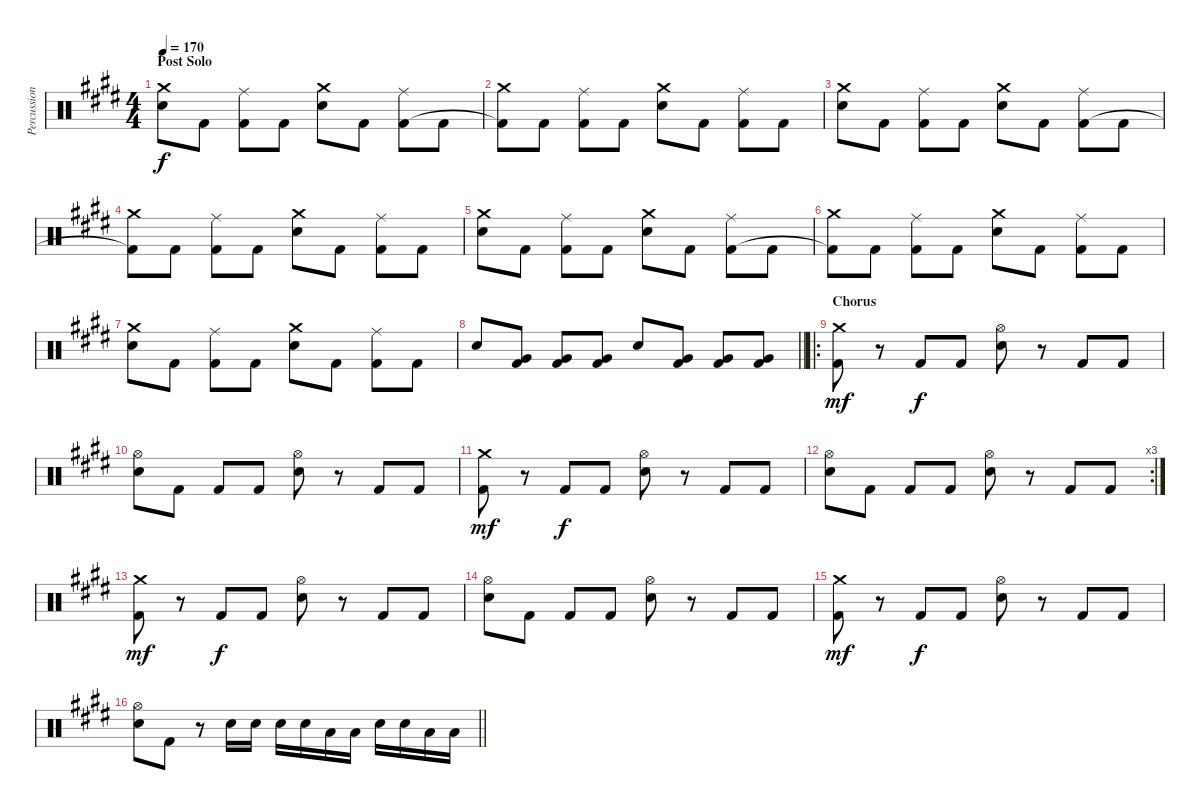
\track ("Percussion" "Percussion") {instrument percussion}
\staff {score}
\articulation defaults
\ts (4 4)
\section ("" "Post Solo")
\tempo 170
\clef neutral
\ks c#minor
("Crash medium (hit)" "Snare (hit) 2").8{dy f} "Kick (hit) 2".8 ("Ride (middle)" "Kick (hit) 2").8 "Kick (hit) 2".8 ("Crash medium (hit)" "Snare (hit) 2").8 "Kick (hit) 2".8 ("Ride (middle)" "Kick (hit) 2").8 "Kick (hit) 2".8 |
("Crash medium (hit)" "Kick (hit) 2"{t}).8 "Kick (hit) 2".8 ("Ride (middle)" "Kick (hit) 2").8 "Kick (hit) 2".8 ("Crash medium (hit)" "Snare (hit) 2").8 "Kick (hit) 2".8 ("Ride (middle)" "Kick (hit) 2").8 "Kick (hit) 2".8 |
("Crash medium (hit)" "Snare (hit) 2").8 "Kick (hit) 2".8 ("Ride (middle)" "Kick (hit) 2").8 "Kick (hit) 2".8 ("Crash medium (hit)" "Snare (hit) 2").8 "Kick (hit) 2".8 ("Ride (middle)" "Kick (hit) 2").8 "Kick (hit) 2".8 |
("Crash medium (hit)" "Kick (hit) 2"{t}).8 "Kick (hit) 2".8 ("Ride (middle)" "Kick (hit) 2").8 "Kick (hit) 2".8 ("Crash medium (hit)" "Snare (hit) 2").8 "Kick (hit) 2".8 ("Ride (middle)" "Kick (hit) 2").8 "Kick (hit) 2".8 |
("Crash medium (hit)" "Snare (hit) 2").8 "Kick (hit) 2".8 ("Ride (middle)" "Kick (hit) 2").8 "Kick (hit) 2".8 ("Crash medium (hit)" "Snare (hit) 2").8 "Kick (hit) 2".8 ("Ride (middle)" "Kick (hit) 2").8 "Kick (hit) 2".8 |
("Crash medium (hit)" "Kick (hit) 2"{t}).8 "Kick (hit) 2".8 ("Ride (middle)" "Kick (hit) 2").8 "Kick (hit) 2".8 ("Crash medium (hit)" "Snare (hit) 2").8 "Kick (hit) 2".8 ("Ride (middle)" "Kick (hit) 2").8 "Kick (hit) 2".8 |
("Crash medium (hit)" "Snare (hit) 2").8 "Kick (hit) 2".8 ("Ride (middle)" "Kick (hit) 2").8 "Kick (hit) 2".8 ("Crash medium (hit)" "Snare (hit) 2").8 "Kick (hit) 2".8 ("Ride (middle)" "Kick (hit) 2").8 "Kick (hit) 2".8 |
\barLineRight lightlight "Snare (hit) 2".8
("Very Low Tom (hit)" "Kick (hit) 2").8 ("Very Low Tom (hit)" "Kick (hit) 2").8 ("Very Low Tom (hit)" "Kick (hit) 2").8 "Snare (hit) 2".8 ("Very Low Tom (hit)" "Kick (hit) 2").8 ("Very Low Tom (hit)" "Kick (hit) 2").8 ("Very Low Tom (hit)" "Kick (hit) 2").8 |
\ro
\section ("" "Chorus")
("Crash medium (hit)" "Kick (hit) 2").8{dy mf} r.8 "Kick (hit) 2".8{dy f} "Kick (hit) 2".8 ("Hi-Hat (open)" "Snare (hit) 2").8 r.8 "Kick (hit) 2".8 "Kick (hit) 2".8 |
("Hi-Hat (open)" "Snare (hit) 2").8 "Kick (hit) 2".8 "Kick (hit) 2".8 "Kick (hit) 2".8 ("Hi-Hat (open)" "Snare (hit) 2").8 r.8 "Kick (hit) 2".8 "Kick (hit) 2".8 |
("Crash medium (hit)" "Kick (hit) 2").8{dy mf} r.8 "Kick (hit) 2".8{dy f} "Kick (hit) 2".8 ("Hi-Hat (open)" "Snare (hit) 2").8 r.8 "Kick (hit) 2".8 "Kick (hit) 2".8 |
\rc 3
("Hi-Hat (open)" "Snare (hit) 2").8 "Kick (hit) 2".8 "Kick (hit) 2".8 "Kick (hit) 2".8 ("Hi-Hat (open)" "Snare (hit) 2").8 r.8 "Kick (hit) 2".8 "Kick (hit) 2".8 |
("Crash medium (hit)" "Kick (hit) 2").8{dy mf} r.8 "Kick (hit) 2".8{dy f} "Kick (hit) 2".8 ("Hi-Hat (open)" "Snare (hit) 2").8 r.8 "Kick (hit) 2".8 "Kick (hit) 2".8 |
("Hi-Hat (open)" "Snare (hit) 2").8 "Kick (hit) 2".8 "Kick (hit) 2".8 "Kick (hit) 2".8 ("Hi-Hat (open)" "Snare (hit) 2").8 r.8 "Kick (hit) 2".8 "Kick (hit) 2".8 |
("Crash medium (hit)" "Kick (hit) 2").8{dy mf} r.8 "Kick (hit) 2".8{dy f} "Kick (hit) 2".8 ("Hi-Hat (open)" "Snare (hit) 2").8 r.8 "Kick (hit) 2".8 "Kick (hit) 2".8 |
\barLineRight lightlight
("Hi-Hat (open)" "Snare (hit) 2").8 "Kick (hit) 2".8 r.8 "Snare (hit) 2".16 "Snare (hit) 2".16 "Snare (hit) 2".16 "Snare (hit) 2".16 "Low Tom (hit)".16 "Low Tom (hit)".16 "Snare (hit) 2".16 "Snare (hit) 2".16 "Low Tom (hit)".16 "Low Tom (hit)".16
